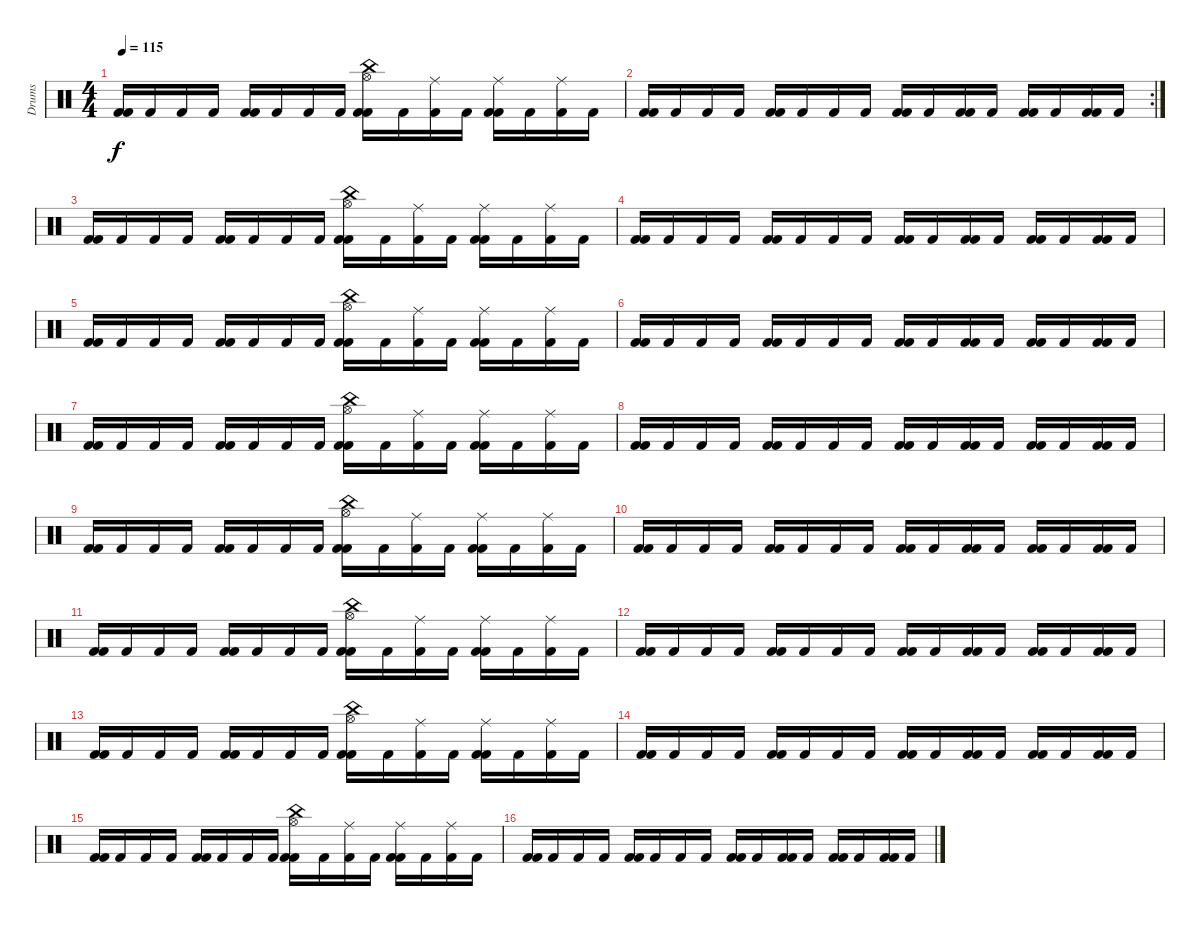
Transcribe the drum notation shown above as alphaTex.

\track ("Drums" "Drums") {instrument percussion}
\staff {score}
\articulation defaults
\ts (4 4)
\tempo 115
\clef neutral
\ks c
("Kick (hit) 2" "Kick (hit) 2").16{dy f} "Kick (hit) 2".16 "Kick (hit) 2".16 "Kick (hit) 2".16 ("Kick (hit) 2" "Kick (hit) 2").16 "Kick (hit) 2".16 "Kick (hit) 2".16 "Kick (hit) 2".16 ("China (hit)" "Kick (hit) 2" "Kick (hit) 2" "Hi-Hat (open)").16 "Kick (hit) 2".16 ("Ride (middle)" "Kick (hit) 2").16 "Kick (hit) 2".16 ("Ride (middle)" "Kick (hit) 2" "Kick (hit) 2").16 "Kick (hit) 2".16 ("Ride (middle)" "Kick (hit) 2").16 "Kick (hit) 2".16 |
\rc 2
("Kick (hit) 2" "Kick (hit) 2").16 "Kick (hit) 2".16 "Kick (hit) 2".16 "Kick (hit) 2".16 ("Kick (hit) 2" "Kick (hit) 2").16 "Kick (hit) 2".16 "Kick (hit) 2".16 "Kick (hit) 2".16 ("Kick (hit) 2" "Kick (hit) 2").16 "Kick (hit) 2".16 ("Kick (hit) 2" "Kick (hit) 2").16 "Kick (hit) 2".16 ("Kick (hit) 2" "Kick (hit) 2").16 "Kick (hit) 2".16 ("Kick (hit) 2" "Kick (hit) 2").16 "Kick (hit) 2".16 |
("Kick (hit) 2" "Kick (hit) 2").16 "Kick (hit) 2".16 "Kick (hit) 2".16 "Kick (hit) 2".16 ("Kick (hit) 2" "Kick (hit) 2").16 "Kick (hit) 2".16 "Kick (hit) 2".16 "Kick (hit) 2".16 ("China (hit)" "Kick (hit) 2" "Kick (hit) 2" "Hi-Hat (open)").16 "Kick (hit) 2".16 ("Ride (middle)" "Kick (hit) 2").16 "Kick (hit) 2".16 ("Ride (middle)" "Kick (hit) 2" "Kick (hit) 2").16 "Kick (hit) 2".16 ("Ride (middle)" "Kick (hit) 2").16 "Kick (hit) 2".16 |
("Kick (hit) 2" "Kick (hit) 2").16 "Kick (hit) 2".16 "Kick (hit) 2".16 "Kick (hit) 2".16 ("Kick (hit) 2" "Kick (hit) 2").16 "Kick (hit) 2".16 "Kick (hit) 2".16 "Kick (hit) 2".16 ("Kick (hit) 2" "Kick (hit) 2").16 "Kick (hit) 2".16 ("Kick (hit) 2" "Kick (hit) 2").16 "Kick (hit) 2".16 ("Kick (hit) 2" "Kick (hit) 2").16 "Kick (hit) 2".16 ("Kick (hit) 2" "Kick (hit) 2").16 "Kick (hit) 2".16 |
("Kick (hit) 2" "Kick (hit) 2").16 "Kick (hit) 2".16 "Kick (hit) 2".16 "Kick (hit) 2".16 ("Kick (hit) 2" "Kick (hit) 2").16 "Kick (hit) 2".16 "Kick (hit) 2".16 "Kick (hit) 2".16 ("China (hit)" "Kick (hit) 2" "Kick (hit) 2" "Hi-Hat (open)").16 "Kick (hit) 2".16 ("Ride (middle)" "Kick (hit) 2").16 "Kick (hit) 2".16 ("Ride (middle)" "Kick (hit) 2" "Kick (hit) 2").16 "Kick (hit) 2".16 ("Ride (middle)" "Kick (hit) 2").16 "Kick (hit) 2".16 |
("Kick (hit) 2" "Kick (hit) 2").16 "Kick (hit) 2".16 "Kick (hit) 2".16 "Kick (hit) 2".16 ("Kick (hit) 2" "Kick (hit) 2").16 "Kick (hit) 2".16 "Kick (hit) 2".16 "Kick (hit) 2".16 ("Kick (hit) 2" "Kick (hit) 2").16 "Kick (hit) 2".16 ("Kick (hit) 2" "Kick (hit) 2").16 "Kick (hit) 2".16 ("Kick (hit) 2" "Kick (hit) 2").16 "Kick (hit) 2".16 ("Kick (hit) 2" "Kick (hit) 2").16 "Kick (hit) 2".16 |
("Kick (hit) 2" "Kick (hit) 2").16 "Kick (hit) 2".16 "Kick (hit) 2".16 "Kick (hit) 2".16 ("Kick (hit) 2" "Kick (hit) 2").16 "Kick (hit) 2".16 "Kick (hit) 2".16 "Kick (hit) 2".16 ("China (hit)" "Kick (hit) 2" "Kick (hit) 2" "Hi-Hat (open)").16 "Kick (hit) 2".16 ("Ride (middle)" "Kick (hit) 2").16 "Kick (hit) 2".16 ("Ride (middle)" "Kick (hit) 2" "Kick (hit) 2").16 "Kick (hit) 2".16 ("Ride (middle)" "Kick (hit) 2").16 "Kick (hit) 2".16 |
("Kick (hit) 2" "Kick (hit) 2").16 "Kick (hit) 2".16 "Kick (hit) 2".16 "Kick (hit) 2".16 ("Kick (hit) 2" "Kick (hit) 2").16 "Kick (hit) 2".16 "Kick (hit) 2".16 "Kick (hit) 2".16 ("Kick (hit) 2" "Kick (hit) 2").16 "Kick (hit) 2".16 ("Kick (hit) 2" "Kick (hit) 2").16 "Kick (hit) 2".16 ("Kick (hit) 2" "Kick (hit) 2").16 "Kick (hit) 2".16 ("Kick (hit) 2" "Kick (hit) 2").16 "Kick (hit) 2".16 |
("Kick (hit) 2" "Kick (hit) 2").16 "Kick (hit) 2".16 "Kick (hit) 2".16 "Kick (hit) 2".16 ("Kick (hit) 2" "Kick (hit) 2").16 "Kick (hit) 2".16 "Kick (hit) 2".16 "Kick (hit) 2".16 ("China (hit)" "Kick (hit) 2" "Kick (hit) 2" "Hi-Hat (open)").16 "Kick (hit) 2".16 ("Ride (middle)" "Kick (hit) 2").16 "Kick (hit) 2".16 ("Ride (middle)" "Kick (hit) 2" "Kick (hit) 2").16 "Kick (hit) 2".16 ("Ride (middle)" "Kick (hit) 2").16 "Kick (hit) 2".16 |
("Kick (hit) 2" "Kick (hit) 2").16 "Kick (hit) 2".16 "Kick (hit) 2".16 "Kick (hit) 2".16 ("Kick (hit) 2" "Kick (hit) 2").16 "Kick (hit) 2".16 "Kick (hit) 2".16 "Kick (hit) 2".16 ("Kick (hit) 2" "Kick (hit) 2").16 "Kick (hit) 2".16 ("Kick (hit) 2" "Kick (hit) 2").16 "Kick (hit) 2".16 ("Kick (hit) 2" "Kick (hit) 2").16 "Kick (hit) 2".16 ("Kick (hit) 2" "Kick (hit) 2").16 "Kick (hit) 2".16 |
("Kick (hit) 2" "Kick (hit) 2").16 "Kick (hit) 2".16 "Kick (hit) 2".16 "Kick (hit) 2".16 ("Kick (hit) 2" "Kick (hit) 2").16 "Kick (hit) 2".16 "Kick (hit) 2".16 "Kick (hit) 2".16 ("China (hit)" "Kick (hit) 2" "Kick (hit) 2" "Hi-Hat (open)").16 "Kick (hit) 2".16 ("Ride (middle)" "Kick (hit) 2").16 "Kick (hit) 2".16 ("Ride (middle)" "Kick (hit) 2" "Kick (hit) 2").16 "Kick (hit) 2".16 ("Ride (middle)" "Kick (hit) 2").16 "Kick (hit) 2".16 |
("Kick (hit) 2" "Kick (hit) 2").16 "Kick (hit) 2".16 "Kick (hit) 2".16 "Kick (hit) 2".16 ("Kick (hit) 2" "Kick (hit) 2").16 "Kick (hit) 2".16 "Kick (hit) 2".16 "Kick (hit) 2".16 ("Kick (hit) 2" "Kick (hit) 2").16 "Kick (hit) 2".16 ("Kick (hit) 2" "Kick (hit) 2").16 "Kick (hit) 2".16 ("Kick (hit) 2" "Kick (hit) 2").16 "Kick (hit) 2".16 ("Kick (hit) 2" "Kick (hit) 2").16 "Kick (hit) 2".16 |
("Kick (hit) 2" "Kick (hit) 2").16 "Kick (hit) 2".16 "Kick (hit) 2".16 "Kick (hit) 2".16 ("Kick (hit) 2" "Kick (hit) 2").16 "Kick (hit) 2".16 "Kick (hit) 2".16 "Kick (hit) 2".16 ("China (hit)" "Kick (hit) 2" "Kick (hit) 2" "Hi-Hat (open)").16 "Kick (hit) 2".16 ("Ride (middle)" "Kick (hit) 2").16 "Kick (hit) 2".16 ("Ride (middle)" "Kick (hit) 2" "Kick (hit) 2").16 "Kick (hit) 2".16 ("Ride (middle)" "Kick (hit) 2").16 "Kick (hit) 2".16 |
("Kick (hit) 2" "Kick (hit) 2").16 "Kick (hit) 2".16 "Kick (hit) 2".16 "Kick (hit) 2".16 ("Kick (hit) 2" "Kick (hit) 2").16 "Kick (hit) 2".16 "Kick (hit) 2".16 "Kick (hit) 2".16 ("Kick (hit) 2" "Kick (hit) 2").16 "Kick (hit) 2".16 ("Kick (hit) 2" "Kick (hit) 2").16 "Kick (hit) 2".16 ("Kick (hit) 2" "Kick (hit) 2").16 "Kick (hit) 2".16 ("Kick (hit) 2" "Kick (hit) 2").16 "Kick (hit) 2".16 |
("Kick (hit) 2" "Kick (hit) 2").16 "Kick (hit) 2".16 "Kick (hit) 2".16 "Kick (hit) 2".16 ("Kick (hit) 2" "Kick (hit) 2").16 "Kick (hit) 2".16 "Kick (hit) 2".16 "Kick (hit) 2".16 ("China (hit)" "Kick (hit) 2" "Kick (hit) 2" "Hi-Hat (open)").16 "Kick (hit) 2".16 ("Ride (middle)" "Kick (hit) 2").16 "Kick (hit) 2".16 ("Ride (middle)" "Kick (hit) 2" "Kick (hit) 2").16 "Kick (hit) 2".16 ("Ride (middle)" "Kick (hit) 2").16 "Kick (hit) 2".16 |
("Kick (hit) 2" "Kick (hit) 2").16 "Kick (hit) 2".16 "Kick (hit) 2".16 "Kick (hit) 2".16 ("Kick (hit) 2" "Kick (hit) 2").16 "Kick (hit) 2".16 "Kick (hit) 2".16 "Kick (hit) 2".16 ("Kick (hit) 2" "Kick (hit) 2").16 "Kick (hit) 2".16 ("Kick (hit) 2" "Kick (hit) 2").16 "Kick (hit) 2".16 ("Kick (hit) 2" "Kick (hit) 2").16 "Kick (hit) 2".16 ("Kick (hit) 2" "Kick (hit) 2").16 "Kick (hit) 2".16
